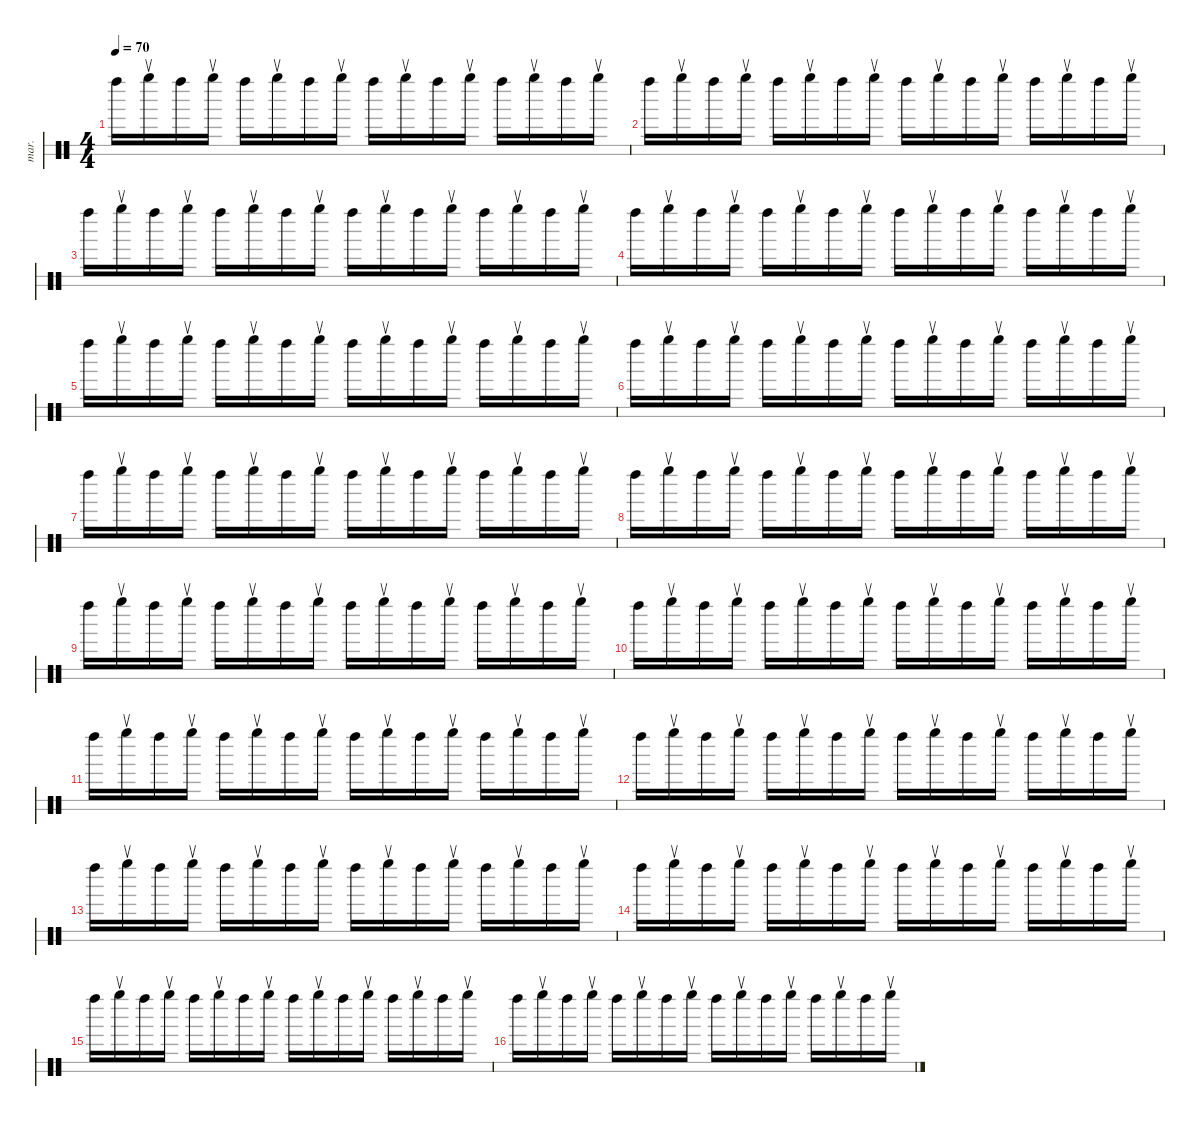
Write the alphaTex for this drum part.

\defaultSystemsLayout 4
\hideDynamics
\bracketExtendMode nobrackets
\otherSystemsTrackNameOrientation horizontal
\track ("Maracas" "mar.") {defaultSystemsLayout 4 multiBarRest instrument percussion}
\staff {score 2}
\articulation defaults
\ts (4 4)
\tempo 70
\clef neutral
\ks c "Right Maraca (hit)".16{dy ff} "Right Maraca (return)".16{dy f} "Right Maraca (hit)".16{dy ff} "Right Maraca (return)".16{dy f} "Right Maraca (hit)".16{dy ff} "Right Maraca (return)".16{dy f} "Right Maraca (hit)".16{dy ff} "Right Maraca (return)".16{dy f} "Right Maraca (hit)".16{dy ff} "Right Maraca (return)".16{dy f} "Right Maraca (hit)".16{dy ff} "Right Maraca (return)".16{dy f} "Right Maraca (hit)".16{dy ff} "Right Maraca (return)".16{dy f} "Right Maraca (hit)".16{dy ff} "Right Maraca (return)".16{dy f}
|
"Right Maraca (hit)".16{dy ff} "Right Maraca (return)".16{dy f} "Right Maraca (hit)".16{dy ff} "Right Maraca (return)".16{dy f} "Right Maraca (hit)".16{dy ff} "Right Maraca (return)".16{dy f} "Right Maraca (hit)".16{dy ff} "Right Maraca (return)".16{dy f} "Right Maraca (hit)".16{dy ff} "Right Maraca (return)".16{dy f} "Right Maraca (hit)".16{dy ff} "Right Maraca (return)".16{dy f} "Right Maraca (hit)".16{dy ff} "Right Maraca (return)".16{dy f} "Right Maraca (hit)".16{dy ff} "Right Maraca (return)".16{dy f} |
"Right Maraca (hit)".16{dy ff} "Right Maraca (return)".16{dy f} "Right Maraca (hit)".16{dy ff} "Right Maraca (return)".16{dy f} "Right Maraca (hit)".16{dy ff} "Right Maraca (return)".16{dy f} "Right Maraca (hit)".16{dy ff} "Right Maraca (return)".16{dy f} "Right Maraca (hit)".16{dy ff} "Right Maraca (return)".16{dy f} "Right Maraca (hit)".16{dy ff} "Right Maraca (return)".16{dy f} "Right Maraca (hit)".16{dy ff} "Right Maraca (return)".16{dy f} "Right Maraca (hit)".16{dy ff} "Right Maraca (return)".16{dy f} |
"Right Maraca (hit)".16{dy ff} "Right Maraca (return)".16{dy f} "Right Maraca (hit)".16{dy ff} "Right Maraca (return)".16{dy f} "Right Maraca (hit)".16{dy ff} "Right Maraca (return)".16{dy f} "Right Maraca (hit)".16{dy ff} "Right Maraca (return)".16{dy f} "Right Maraca (hit)".16{dy ff} "Right Maraca (return)".16{dy f} "Right Maraca (hit)".16{dy ff} "Right Maraca (return)".16{dy f} "Right Maraca (hit)".16{dy ff} "Right Maraca (return)".16{dy f} "Right Maraca (hit)".16{dy ff} "Right Maraca (return)".16{dy f} |
"Right Maraca (hit)".16{dy ff} "Right Maraca (return)".16{dy f} "Right Maraca (hit)".16{dy ff} "Right Maraca (return)".16{dy f} "Right Maraca (hit)".16{dy ff} "Right Maraca (return)".16{dy f} "Right Maraca (hit)".16{dy ff} "Right Maraca (return)".16{dy f} "Right Maraca (hit)".16{dy ff} "Right Maraca (return)".16{dy f} "Right Maraca (hit)".16{dy ff} "Right Maraca (return)".16{dy f} "Right Maraca (hit)".16{dy ff} "Right Maraca (return)".16{dy f} "Right Maraca (hit)".16{dy ff} "Right Maraca (return)".16{dy f} |
"Right Maraca (hit)".16{dy ff} "Right Maraca (return)".16{dy f} "Right Maraca (hit)".16{dy ff} "Right Maraca (return)".16{dy f} "Right Maraca (hit)".16{dy ff} "Right Maraca (return)".16{dy f} "Right Maraca (hit)".16{dy ff} "Right Maraca (return)".16{dy f} "Right Maraca (hit)".16{dy ff} "Right Maraca (return)".16{dy f} "Right Maraca (hit)".16{dy ff} "Right Maraca (return)".16{dy f} "Right Maraca (hit)".16{dy ff} "Right Maraca (return)".16{dy f} "Right Maraca (hit)".16{dy ff} "Right Maraca (return)".16{dy f} |
"Right Maraca (hit)".16{dy ff} "Right Maraca (return)".16{dy f} "Right Maraca (hit)".16{dy ff} "Right Maraca (return)".16{dy f} "Right Maraca (hit)".16{dy ff} "Right Maraca (return)".16{dy f} "Right Maraca (hit)".16{dy ff} "Right Maraca (return)".16{dy f} "Right Maraca (hit)".16{dy ff} "Right Maraca (return)".16{dy f} "Right Maraca (hit)".16{dy ff} "Right Maraca (return)".16{dy f} "Right Maraca (hit)".16{dy ff} "Right Maraca (return)".16{dy f} "Right Maraca (hit)".16{dy ff} "Right Maraca (return)".16{dy f} |
"Right Maraca (hit)".16{dy ff} "Right Maraca (return)".16{dy f} "Right Maraca (hit)".16{dy ff} "Right Maraca (return)".16{dy f} "Right Maraca (hit)".16{dy ff} "Right Maraca (return)".16{dy f} "Right Maraca (hit)".16{dy ff} "Right Maraca (return)".16{dy f} "Right Maraca (hit)".16{dy ff} "Right Maraca (return)".16{dy f} "Right Maraca (hit)".16{dy ff} "Right Maraca (return)".16{dy f} "Right Maraca (hit)".16{dy ff} "Right Maraca (return)".16{dy f} "Right Maraca (hit)".16{dy ff} "Right Maraca (return)".16{dy f} |
"Right Maraca (hit)".16{dy ff} "Right Maraca (return)".16{dy f} "Right Maraca (hit)".16{dy ff} "Right Maraca (return)".16{dy f} "Right Maraca (hit)".16{dy ff} "Right Maraca (return)".16{dy f} "Right Maraca (hit)".16{dy ff} "Right Maraca (return)".16{dy f} "Right Maraca (hit)".16{dy ff} "Right Maraca (return)".16{dy f} "Right Maraca (hit)".16{dy ff} "Right Maraca (return)".16{dy f} "Right Maraca (hit)".16{dy ff} "Right Maraca (return)".16{dy f} "Right Maraca (hit)".16{dy ff} "Right Maraca (return)".16{dy f} |
"Right Maraca (hit)".16{dy ff} "Right Maraca (return)".16{dy f} "Right Maraca (hit)".16{dy ff} "Right Maraca (return)".16{dy f} "Right Maraca (hit)".16{dy ff} "Right Maraca (return)".16{dy f} "Right Maraca (hit)".16{dy ff} "Right Maraca (return)".16{dy f} "Right Maraca (hit)".16{dy ff} "Right Maraca (return)".16{dy f} "Right Maraca (hit)".16{dy ff} "Right Maraca (return)".16{dy f} "Right Maraca (hit)".16{dy ff} "Right Maraca (return)".16{dy f} "Right Maraca (hit)".16{dy ff} "Right Maraca (return)".16{dy f} |
"Right Maraca (hit)".16{dy ff} "Right Maraca (return)".16{dy f} "Right Maraca (hit)".16{dy ff} "Right Maraca (return)".16{dy f} "Right Maraca (hit)".16{dy ff} "Right Maraca (return)".16{dy f} "Right Maraca (hit)".16{dy ff} "Right Maraca (return)".16{dy f} "Right Maraca (hit)".16{dy ff} "Right Maraca (return)".16{dy f} "Right Maraca (hit)".16{dy ff} "Right Maraca (return)".16{dy f} "Right Maraca (hit)".16{dy ff} "Right Maraca (return)".16{dy f} "Right Maraca (hit)".16{dy ff} "Right Maraca (return)".16{dy f} |
"Right Maraca (hit)".16{dy ff} "Right Maraca (return)".16{dy f} "Right Maraca (hit)".16{dy ff} "Right Maraca (return)".16{dy f} "Right Maraca (hit)".16{dy ff} "Right Maraca (return)".16{dy f} "Right Maraca (hit)".16{dy ff} "Right Maraca (return)".16{dy f} "Right Maraca (hit)".16{dy ff} "Right Maraca (return)".16{dy f} "Right Maraca (hit)".16{dy ff} "Right Maraca (return)".16{dy f} "Right Maraca (hit)".16{dy ff} "Right Maraca (return)".16{dy f} "Right Maraca (hit)".16{dy ff} "Right Maraca (return)".16{dy f} |
"Right Maraca (hit)".16{dy ff} "Right Maraca (return)".16{dy f} "Right Maraca (hit)".16{dy ff} "Right Maraca (return)".16{dy f} "Right Maraca (hit)".16{dy ff} "Right Maraca (return)".16{dy f} "Right Maraca (hit)".16{dy ff} "Right Maraca (return)".16{dy f} "Right Maraca (hit)".16{dy ff} "Right Maraca (return)".16{dy f} "Right Maraca (hit)".16{dy ff} "Right Maraca (return)".16{dy f} "Right Maraca (hit)".16{dy ff} "Right Maraca (return)".16{dy f} "Right Maraca (hit)".16{dy ff} "Right Maraca (return)".16{dy f} |
"Right Maraca (hit)".16{dy ff} "Right Maraca (return)".16{dy f} "Right Maraca (hit)".16{dy ff} "Right Maraca (return)".16{dy f} "Right Maraca (hit)".16{dy ff} "Right Maraca (return)".16{dy f} "Right Maraca (hit)".16{dy ff} "Right Maraca (return)".16{dy f} "Right Maraca (hit)".16{dy ff} "Right Maraca (return)".16{dy f} "Right Maraca (hit)".16{dy ff} "Right Maraca (return)".16{dy f} "Right Maraca (hit)".16{dy ff} "Right Maraca (return)".16{dy f} "Right Maraca (hit)".16{dy ff} "Right Maraca (return)".16{dy f} |
"Right Maraca (hit)".16{dy ff} "Right Maraca (return)".16{dy f} "Right Maraca (hit)".16{dy ff} "Right Maraca (return)".16{dy f} "Right Maraca (hit)".16{dy ff} "Right Maraca (return)".16{dy f} "Right Maraca (hit)".16{dy ff} "Right Maraca (return)".16{dy f} "Right Maraca (hit)".16{dy ff} "Right Maraca (return)".16{dy f} "Right Maraca (hit)".16{dy ff} "Right Maraca (return)".16{dy f} "Right Maraca (hit)".16{dy ff} "Right Maraca (return)".16{dy f} "Right Maraca (hit)".16{dy ff} "Right Maraca (return)".16{dy f} |
"Right Maraca (hit)".16{dy ff} "Right Maraca (return)".16{dy f} "Right Maraca (hit)".16{dy ff} "Right Maraca (return)".16{dy f} "Right Maraca (hit)".16{dy ff} "Right Maraca (return)".16{dy f} "Right Maraca (hit)".16{dy ff} "Right Maraca (return)".16{dy f} "Right Maraca (hit)".16{dy ff} "Right Maraca (return)".16{dy f} "Right Maraca (hit)".16{dy ff} "Right Maraca (return)".16{dy f} "Right Maraca (hit)".16{dy ff} "Right Maraca (return)".16{dy f} "Right Maraca (hit)".16{dy ff} "Right Maraca (return)".16{dy f}
